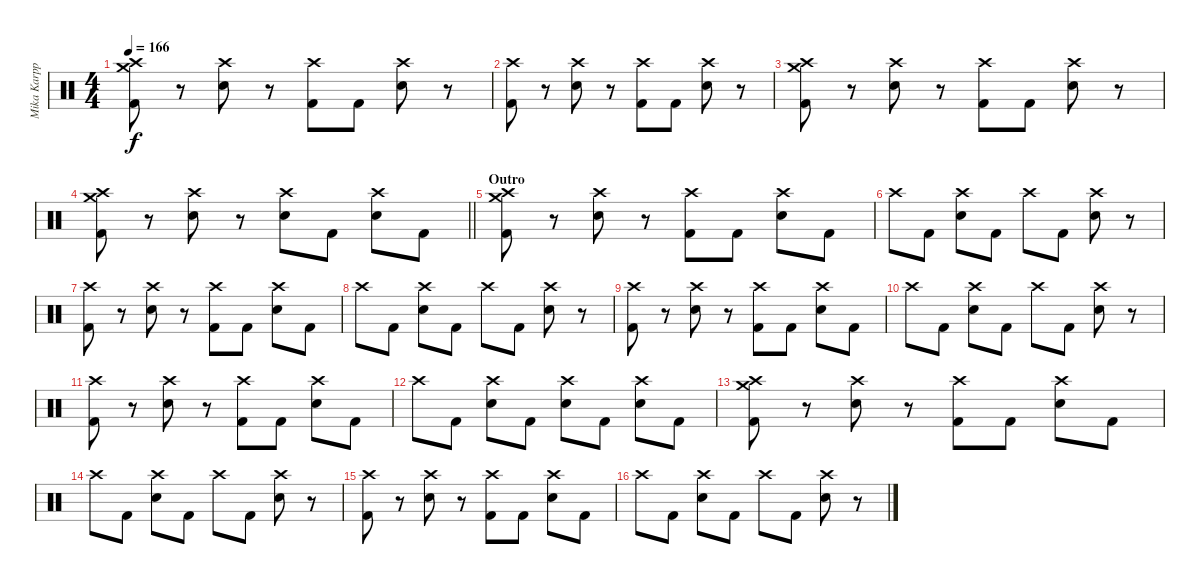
\track ("Mika Karppinen" "Mika Karpp") {instrument percussion}
\staff {score}
\articulation defaults
\ts (4 4)
\tempo 166
\clef neutral
\ks c
("Crash medium (hit)" "Crash high (hit)" "Kick (hit) 2").8{dy f} r.8 ("Crash high (hit)" "Snare (hit) 2").8 r.8 ("Crash high (hit)" "Kick (hit) 2").8 "Kick (hit) 2".8 ("Crash high (hit)" "Snare (hit) 2").8 r.8 |
("Crash high (hit)" "Kick (hit) 2").8 r.8 ("Crash high (hit)" "Snare (hit) 2").8 r.8 ("Crash high (hit)" "Kick (hit) 2").8 "Kick (hit) 2".8 ("Crash high (hit)" "Snare (hit) 2").8 r.8 |
("Crash medium (hit)" "Crash high (hit)" "Kick (hit) 2").8 r.8 ("Crash high (hit)" "Snare (hit) 2").8 r.8 ("Crash high (hit)" "Kick (hit) 2").8 "Kick (hit) 2".8 ("Crash high (hit)" "Snare (hit) 2").8 r.8 |
\barLineRight lightlight
("Crash medium (hit)" "Crash high (hit)" "Kick (hit) 2").8 r.8 ("Crash high (hit)" "Snare (hit) 2").8 r.8 ("Crash high (hit)" "Snare (hit) 2").8 "Kick (hit) 2".8 ("Crash high (hit)" "Snare (hit) 2").8 "Kick (hit) 2".8 |
\section ("" "Outro")
("Crash medium (hit)" "Crash high (hit)" "Kick (hit) 2").8 r.8 ("Crash high (hit)" "Snare (hit) 2").8 r.8 ("Crash high (hit)" "Kick (hit) 2").8 "Kick (hit) 2".8 ("Crash high (hit)" "Snare (hit) 2").8 "Kick (hit) 2".8 |
"Crash high (hit)".8 "Kick (hit) 2".8 ("Crash high (hit)" "Snare (hit) 2").8 "Kick (hit) 2".8 "Crash high (hit)".8 "Kick (hit) 2".8 ("Crash high (hit)" "Snare (hit) 2").8 r.8 |
("Crash high (hit)" "Kick (hit) 2").8 r.8 ("Crash high (hit)" "Snare (hit) 2").8 r.8 ("Crash high (hit)" "Kick (hit) 2").8 "Kick (hit) 2".8 ("Crash high (hit)" "Snare (hit) 2").8 "Kick (hit) 2".8 |
"Crash high (hit)".8 "Kick (hit) 2".8 ("Crash high (hit)" "Snare (hit) 2").8 "Kick (hit) 2".8 "Crash high (hit)".8 "Kick (hit) 2".8 ("Crash high (hit)" "Snare (hit) 2").8 r.8 |
("Crash high (hit)" "Kick (hit) 2").8 r.8 ("Crash high (hit)" "Snare (hit) 2").8 r.8 ("Crash high (hit)" "Kick (hit) 2").8 "Kick (hit) 2".8 ("Crash high (hit)" "Snare (hit) 2").8 "Kick (hit) 2".8 |
"Crash high (hit)".8 "Kick (hit) 2".8 ("Crash high (hit)" "Snare (hit) 2").8 "Kick (hit) 2".8 "Crash high (hit)".8 "Kick (hit) 2".8 ("Crash high (hit)" "Snare (hit) 2").8 r.8 |
("Crash high (hit)" "Kick (hit) 2").8 r.8 ("Crash high (hit)" "Snare (hit) 2").8 r.8 ("Crash high (hit)" "Kick (hit) 2").8 "Kick (hit) 2".8 ("Crash high (hit)" "Snare (hit) 2").8 "Kick (hit) 2".8 |
"Crash high (hit)".8 "Kick (hit) 2".8 ("Crash high (hit)" "Snare (hit) 2").8 "Kick (hit) 2".8 ("Crash high (hit)" "Snare (hit) 2").8 "Kick (hit) 2".8 ("Crash high (hit)" "Snare (hit) 2").8 "Kick (hit) 2".8 |
("Crash medium (hit)" "Crash high (hit)" "Kick (hit) 2").8 r.8 ("Crash high (hit)" "Snare (hit) 2").8 r.8 ("Crash high (hit)" "Kick (hit) 2").8 "Kick (hit) 2".8 ("Crash high (hit)" "Snare (hit) 2").8 "Kick (hit) 2".8 |
"Crash high (hit)".8 "Kick (hit) 2".8 ("Crash high (hit)" "Snare (hit) 2").8 "Kick (hit) 2".8 "Crash high (hit)".8 "Kick (hit) 2".8 ("Crash high (hit)" "Snare (hit) 2").8 r.8 |
("Crash high (hit)" "Kick (hit) 2").8 r.8 ("Crash high (hit)" "Snare (hit) 2").8 r.8 ("Crash high (hit)" "Kick (hit) 2").8 "Kick (hit) 2".8 ("Crash high (hit)" "Snare (hit) 2").8 "Kick (hit) 2".8 |
"Crash high (hit)".8 "Kick (hit) 2".8 ("Crash high (hit)" "Snare (hit) 2").8 "Kick (hit) 2".8 "Crash high (hit)".8 "Kick (hit) 2".8 ("Crash high (hit)" "Snare (hit) 2").8 r.8
